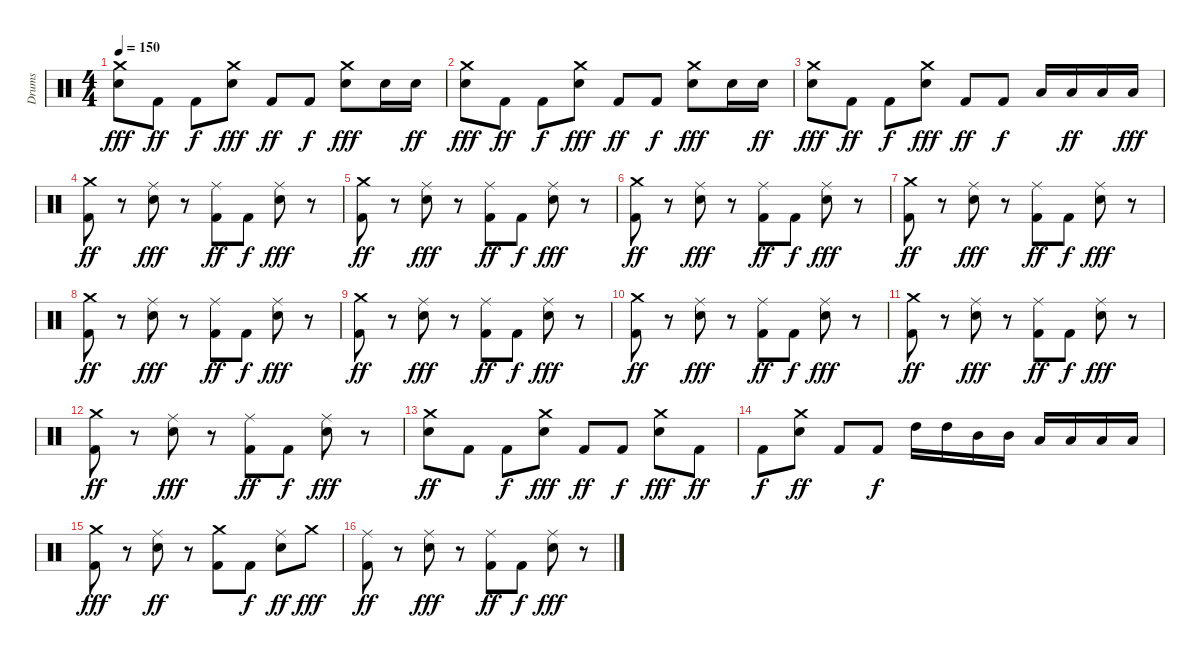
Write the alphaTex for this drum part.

\track ("Drums" "Drums") {instrument percussion}
\staff {score}
\articulation defaults
\ts (4 4)
\tempo 150
\clef neutral
\ks c
("Snare (hit) 2" "Crash medium (hit)").8{dy fff} "Kick (hit) 2".8{dy ff} "Kick (hit) 2".8{dy f} ("Snare (hit) 2" "Crash medium (hit)").8{dy fff} "Kick (hit) 2".8{dy ff} "Kick (hit) 2".8{dy f} ("Snare (hit) 2" "Crash medium (hit)").8{dy fff} "Snare (hit) 2".16 "Snare (hit) 2".16{dy ff} |
("Snare (hit) 2" "Crash medium (hit)").8{dy fff} "Kick (hit) 2".8{dy ff} "Kick (hit) 2".8{dy f} ("Snare (hit) 2" "Crash medium (hit)").8{dy fff} "Kick (hit) 2".8{dy ff} "Kick (hit) 2".8{dy f} ("Snare (hit) 2" "Crash medium (hit)").8{dy fff} "Snare (hit) 2".16 "Snare (hit) 2".16{dy ff} |
("Snare (hit) 2" "Crash medium (hit)").8{dy fff} "Kick (hit) 2".8{dy ff} "Kick (hit) 2".8{dy f} ("Snare (hit) 2" "Crash medium (hit)").8{dy fff} "Kick (hit) 2".8{dy ff} "Kick (hit) 2".8{dy f} "Low Tom (hit)".16 "Low Tom (hit)".16{dy ff} "Low Floor Tom (hit)".16 "Low Floor Tom (hit)".16{dy fff} |
("Crash medium (hit)" "Kick (hit) 2").8{dy ff} r.8 ("Snare (hit) 2" "Ride (middle)").8{dy fff} r.8 ("Kick (hit) 2" "Ride (middle)").8{dy ff} "Kick (hit) 2".8{dy f} ("Snare (hit) 2" "Ride (middle)").8{dy fff} r.8 |
("Crash medium (hit)" "Kick (hit) 2").8{dy ff} r.8 ("Snare (hit) 2" "Ride (middle)").8{dy fff} r.8 ("Kick (hit) 2" "Ride (middle)").8{dy ff} "Kick (hit) 2".8{dy f} ("Snare (hit) 2" "Ride (middle)").8{dy fff} r.8 |
("Crash medium (hit)" "Kick (hit) 2").8{dy ff} r.8 ("Snare (hit) 2" "Ride (middle)").8{dy fff} r.8 ("Kick (hit) 2" "Ride (middle)").8{dy ff} "Kick (hit) 2".8{dy f} ("Snare (hit) 2" "Ride (middle)").8{dy fff} r.8 |
("Crash medium (hit)" "Kick (hit) 2").8{dy ff} r.8 ("Snare (hit) 2" "Ride (middle)").8{dy fff} r.8 ("Kick (hit) 2" "Ride (middle)").8{dy ff} "Kick (hit) 2".8{dy f} ("Snare (hit) 2" "Ride (middle)").8{dy fff} r.8 |
("Crash medium (hit)" "Kick (hit) 2").8{dy ff} r.8 ("Snare (hit) 2" "Ride (middle)").8{dy fff} r.8 ("Kick (hit) 2" "Ride (middle)").8{dy ff} "Kick (hit) 2".8{dy f} ("Snare (hit) 2" "Ride (middle)").8{dy fff} r.8 |
("Crash medium (hit)" "Kick (hit) 2").8{dy ff} r.8 ("Snare (hit) 2" "Ride (middle)").8{dy fff} r.8 ("Kick (hit) 2" "Ride (middle)").8{dy ff} "Kick (hit) 2".8{dy f} ("Snare (hit) 2" "Ride (middle)").8{dy fff} r.8 |
("Crash medium (hit)" "Kick (hit) 2").8{dy ff} r.8 ("Snare (hit) 2" "Ride (middle)").8{dy fff} r.8 ("Kick (hit) 2" "Ride (middle)").8{dy ff} "Kick (hit) 2".8{dy f} ("Snare (hit) 2" "Ride (middle)").8{dy fff} r.8 |
("Crash medium (hit)" "Kick (hit) 2").8{dy ff} r.8 ("Snare (hit) 2" "Ride (middle)").8{dy fff} r.8 ("Kick (hit) 2" "Ride (middle)").8{dy ff} "Kick (hit) 2".8{dy f} ("Snare (hit) 2" "Ride (middle)").8{dy fff} r.8 |
("Crash medium (hit)" "Kick (hit) 2").8{dy ff} r.8 ("Snare (hit) 2" "Ride (middle)").8{dy fff} r.8 ("Kick (hit) 2" "Ride (middle)").8{dy ff} "Kick (hit) 2".8{dy f} ("Snare (hit) 2" "Ride (middle)").8{dy fff} r.8 |
("Snare (hit) 2" "Crash medium (hit)").8{dy ff} "Kick (hit) 2".8 "Kick (hit) 2".8{dy f} ("Snare (hit) 2" "Crash medium (hit)").8{dy fff} "Kick (hit) 2".8{dy ff} "Kick (hit) 2".8{dy f} ("Snare (hit) 2" "Crash medium (hit)").8{dy fff} "Kick (hit) 2".8{dy ff} |
"Kick (hit) 2".8{dy f} ("Crash medium (hit)" "Snare (hit) 2").8{dy ff} "Kick (hit) 2".8 "Kick (hit) 2".8{dy f} "High Tom (hit)".16{volume 14} "High Tom (hit)".16{volume 15} "Mid Tom (hit)".16{volume 15} "Mid Tom (hit)".16 "Low Tom (hit)".16{volume 15} "Low Tom (hit)".16{volume 16} "Low Floor Tom (hit)".16 "Low Floor Tom (hit)".16 |
("Kick (hit) 2" "Crash medium (hit)").8{dy fff volume 16} r.8 ("Ride (middle)" "Snare (hit) 2").8{dy ff} r.8 ("Crash medium (hit)" "Kick (hit) 2").8 "Kick (hit) 2".8{dy f} ("Ride (middle)" "Snare (hit) 2").8{dy ff} "Crash medium (hit)".8{dy fff} |
("Ride (middle)" "Kick (hit) 2").8{dy ff} r.8 ("Snare (hit) 2" "Ride (middle)").8{dy fff} r.8 ("Kick (hit) 2" "Ride (middle)").8{dy ff} "Kick (hit) 2".8{dy f} ("Snare (hit) 2" "Ride (middle)").8{dy fff} r.8
